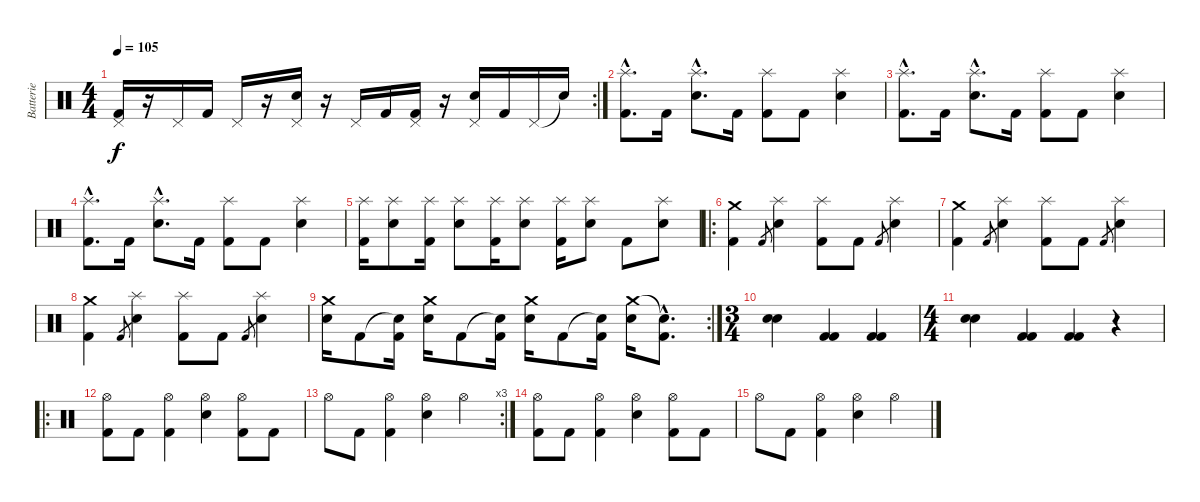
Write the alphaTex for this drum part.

\track ("Batterie" "Batterie") {instrument percussion}
\staff {score}
\articulation defaults
\rc 2
\ts (4 4)
\tempo 105
\clef neutral
\ks c
("Pedal Hi-Hat (hit)" "Kick (hit) 2").16{dy f} r.16 "Pedal Hi-Hat (hit)".16 "Kick (hit) 2".16 "Pedal Hi-Hat (hit)".16 r.16 ("Pedal Hi-Hat (hit)" "Electric Snare (hit)").16 r.16 "Pedal Hi-Hat (hit)".16 "Kick (hit) 2".16 ("Pedal Hi-Hat (hit)" "Kick (hit) 2").16 r.16 ("Pedal Hi-Hat (hit)" "Electric Snare (hit)").16 "Kick (hit) 2".16 "Pedal Hi-Hat (hit)"{tr (44 64)}.16 "Snare (hit)"{t}.16 |
("Splash (hit)"{hac} "Kick (hit) 2"{hac}).8{d} "Kick (hit) 2".16 ("Splash (hit)"{hac} "Electric Snare (hit)"{hac}).8{d} "Kick (hit) 2".16 ("Splash (hit)" "Kick (hit) 2").8 "Kick (hit) 2".8 ("Splash (hit)" "Electric Snare (hit)").4 |
("Splash (hit)"{hac} "Kick (hit) 2"{hac}).8{d} "Kick (hit) 2".16 ("Splash (hit)"{hac} "Electric Snare (hit)"{hac}).8{d} "Kick (hit) 2".16 ("Splash (hit)" "Kick (hit) 2").8 "Kick (hit) 2".8 ("Splash (hit)" "Electric Snare (hit)").4 |
("Splash (hit)"{hac} "Kick (hit) 2"{hac}).8{d} "Kick (hit) 2".16 ("Splash (hit)"{hac} "Electric Snare (hit)"{hac}).8{d} "Kick (hit) 2".16 ("Splash (hit)" "Kick (hit) 2").8 "Kick (hit) 2".8 ("Splash (hit)" "Electric Snare (hit)").4 |
("Splash (hit)" "Kick (hit) 2").16 ("Splash (hit)" "Electric Snare (hit)").8 ("Splash (hit)" "Kick (hit) 2").16 ("Splash (hit)" "Electric Snare (hit)").8 ("Splash (hit)" "Kick (hit) 2").16 ("Splash (hit)" "Electric Snare (hit)").8 ("Splash (hit)" "Kick (hit) 2").16 ("Splash (hit)" "Electric Snare (hit)").8 "Kick (hit) 2"{tr (36 32)}.8 ("Splash (hit)" "Electric Snare (hit)").8 |
\ro
("Crash medium (hit)" "Kick (hit) 2").4 "Kick (hit) 2".8{gr} ("Splash (hit)" "Electric Snare (hit)").4 ("Splash (hit)" "Kick (hit) 2").8 "Kick (hit) 2".8 "Kick (hit) 2".8{gr} ("Splash (hit)" "Electric Snare (hit)").4 |
("Crash medium (hit)" "Kick (hit) 2").4 "Kick (hit) 2".8{gr} ("Splash (hit)" "Electric Snare (hit)").4 ("Splash (hit)" "Kick (hit) 2").8 "Kick (hit) 2".8 "Kick (hit) 2".8{gr} ("Splash (hit)" "Electric Snare (hit)").4 |
("Crash medium (hit)" "Kick (hit) 2").4 "Kick (hit) 2".8{gr} ("Splash (hit)" "Electric Snare (hit)").4 ("Splash (hit)" "Kick (hit) 2").8 "Kick (hit) 2".8 "Kick (hit) 2".8{gr} ("Splash (hit)" "Electric Snare (hit)").4 |
\rc 2
("Crash medium (hit)" "Electric Snare (hit)").16 "Kick (hit) 2".8 ("Snare (hit)"{t} "Kick (hit) 2").16 ("Crash medium (hit)" "Electric Snare (hit)").16 "Kick (hit) 2".8 ("Snare (hit)"{t} "Kick (hit) 2").16 ("Crash medium (hit)" "Electric Snare (hit)").16 "Kick (hit) 2".8 ("Snare (hit)"{t} "Kick (hit) 2").16 ("Crash medium (hit)" "Electric Snare (hit)").16 ("Snare (hit)"{hac t} "Kick (hit) 2"{hac}).8{d} |
\ts (3 4)
("Electric Snare (hit)" "Electric Snare (hit)").4 ("Kick (hit) 2" "Kick (hit) 2").4 ("Kick (hit) 2" "Kick (hit) 2").4 |
\ts (4 4)
("Electric Snare (hit)" "Electric Snare (hit)").4 ("Kick (hit) 2" "Kick (hit) 2").4 ("Kick (hit) 2" "Kick (hit) 2").4 r.4 |
\ro
("Hi-Hat (open)" "Kick (hit) 2").8 "Kick (hit) 2".8 ("Hi-Hat (open)" "Kick (hit) 2").4 ("Hi-Hat (open)" "Electric Snare (hit)").4 ("Hi-Hat (open)" "Kick (hit) 2").8 "Kick (hit) 2".8 |
\rc 3 "Hi-Hat (open)".8 "Kick (hit) 2".8
("Hi-Hat (open)" "Kick (hit) 2").4 ("Hi-Hat (open)" "Electric Snare (hit)").4 "Hi-Hat (open)".4 |
("Hi-Hat (open)" "Kick (hit) 2").8 "Kick (hit) 2".8 ("Hi-Hat (open)" "Kick (hit) 2").4 ("Hi-Hat (open)" "Electric Snare (hit)").4 ("Hi-Hat (open)" "Kick (hit) 2").8 "Kick (hit) 2".8 |
"Hi-Hat (open)".8 "Kick (hit) 2".8 ("Hi-Hat (open)" "Kick (hit) 2").4 ("Hi-Hat (open)" "Electric Snare (hit)").4 "Hi-Hat (open)".4
